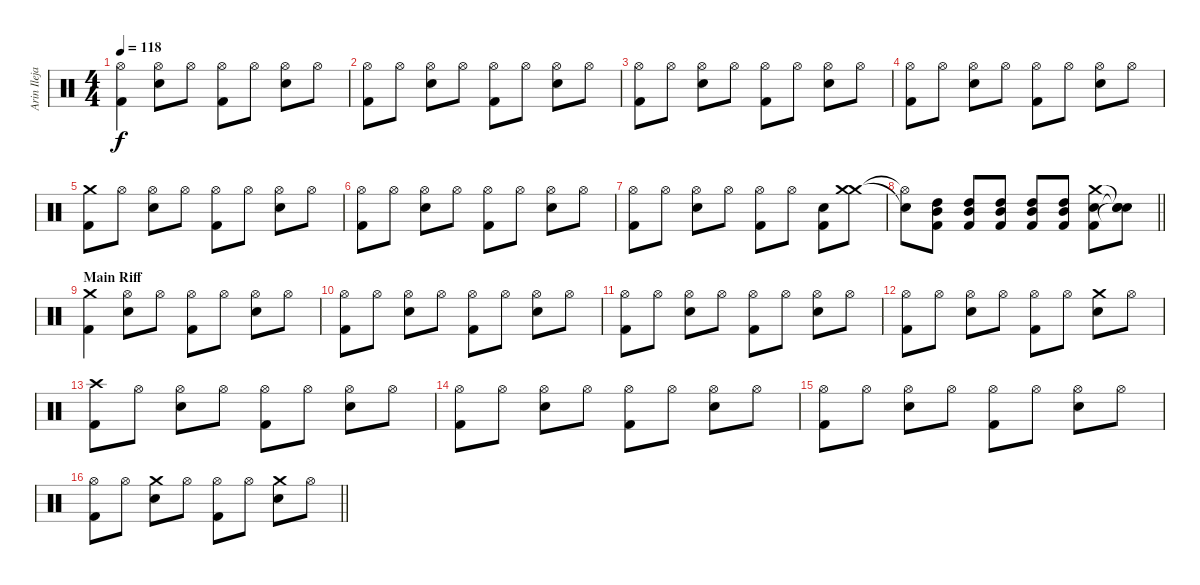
\track ("Arin Ilejay" "Arin Ileja") {instrument percussion bank 164}
\staff {score}
\articulation defaults
\ts (4 4)
\tempo 118
\clef neutral
\ks c
("Hi-Hat (open)" "Kick (hit) 2").4{dy f} ("Hi-Hat (open)" "Electric Snare (hit)").8 "Hi-Hat (open)".8 ("Hi-Hat (open)" "Kick (hit) 2").8 "Hi-Hat (open)".8 ("Hi-Hat (open)" "Electric Snare (hit)").8 "Hi-Hat (open)".8 |
("Hi-Hat (open)" "Kick (hit) 2").8 "Hi-Hat (open)".8 ("Hi-Hat (open)" "Electric Snare (hit)").8 "Hi-Hat (open)".8 ("Hi-Hat (open)" "Kick (hit) 2").8 "Hi-Hat (open)".8 ("Hi-Hat (open)" "Electric Snare (hit)").8 "Hi-Hat (open)".8 |
("Hi-Hat (open)" "Kick (hit) 2").8 "Hi-Hat (open)".8 ("Hi-Hat (open)" "Electric Snare (hit)").8 "Hi-Hat (open)".8 ("Hi-Hat (open)" "Kick (hit) 2").8 "Hi-Hat (open)".8 ("Hi-Hat (open)" "Electric Snare (hit)").8 "Hi-Hat (open)".8 |
("Hi-Hat (open)" "Kick (hit) 2").8 "Hi-Hat (open)".8 ("Hi-Hat (open)" "Electric Snare (hit)").8 "Hi-Hat (open)".8 ("Hi-Hat (open)" "Kick (hit) 2").8 "Hi-Hat (open)".8 ("Hi-Hat (open)" "Electric Snare (hit)").8 "Hi-Hat (open)".8 |
("Crash medium (hit)" "Kick (hit) 2").8 "Hi-Hat (open)".8 ("Hi-Hat (open)" "Electric Snare (hit)").8 "Hi-Hat (open)".8 ("Hi-Hat (open)" "Kick (hit) 2").8 "Hi-Hat (open)".8 ("Hi-Hat (open)" "Electric Snare (hit)").8 "Hi-Hat (open)".8 |
("Hi-Hat (open)" "Kick (hit) 2").8 "Hi-Hat (open)".8 ("Hi-Hat (open)" "Electric Snare (hit)").8 "Hi-Hat (open)".8 ("Hi-Hat (open)" "Kick (hit) 2").8 "Hi-Hat (open)".8 ("Hi-Hat (open)" "Electric Snare (hit)").8 "Hi-Hat (open)".8 |
("Hi-Hat (open)" "Kick (hit) 2").8 "Hi-Hat (open)".8 ("Hi-Hat (open)" "Electric Snare (hit)").8 "Hi-Hat (open)".8 ("Hi-Hat (open)" "Kick (hit) 2").8 "Hi-Hat (open)".8 ("Electric Snare (hit)" "Kick (hit) 2").8 ("Crash medium (hit)" "Crash medium (hit)").8 |
\barLineRight lightlight
("Hi-Hat (open)"{t} "Snare (hit)"{t}).8 ("Mid Tom (hit)" "High Tom (hit)" "Kick (hit) 2").8 ("Mid Tom (hit)" "High Tom (hit)" "Kick (hit) 2").8 ("Mid Tom (hit)" "High Tom (hit)" "Kick (hit) 2").8 ("Mid Tom (hit)" "High Tom (hit)" "Kick (hit) 2").8 ("Mid Tom (hit)" "High Tom (hit)" "Kick (hit) 2").8 ("Crash medium (hit)" "Electric Snare (hit)" "Kick (hit) 2").8 ("Snare (hit)"{t} "Snare (hit)"{t} "Snare (hit)"{t}).8 |
\section ("" "Main Riff")
("Crash medium (hit)" "Kick (hit) 2").4 ("Hi-Hat (open)" "Electric Snare (hit)").8 "Hi-Hat (open)".8 ("Hi-Hat (open)" "Kick (hit) 2").8 "Hi-Hat (open)".8 ("Hi-Hat (open)" "Electric Snare (hit)").8 "Hi-Hat (open)".8 |
("Hi-Hat (open)" "Kick (hit) 2").8 "Hi-Hat (open)".8 ("Hi-Hat (open)" "Electric Snare (hit)").8 "Hi-Hat (open)".8 ("Hi-Hat (open)" "Kick (hit) 2").8 "Hi-Hat (open)".8 ("Hi-Hat (open)" "Electric Snare (hit)").8 "Hi-Hat (open)".8 |
("Hi-Hat (open)" "Kick (hit) 2").8 "Hi-Hat (open)".8 ("Hi-Hat (open)" "Electric Snare (hit)").8 "Hi-Hat (open)".8 ("Hi-Hat (open)" "Kick (hit) 2").8 "Hi-Hat (open)".8 ("Hi-Hat (open)" "Electric Snare (hit)").8 "Hi-Hat (open)".8 |
("Hi-Hat (open)" "Kick (hit) 2").8 "Hi-Hat (open)".8 ("Hi-Hat (open)" "Electric Snare (hit)").8 "Hi-Hat (open)".8 ("Hi-Hat (open)" "Kick (hit) 2").8 "Hi-Hat (open)".8 ("Crash medium (hit)" "Electric Snare (hit)").8 "Hi-Hat (open)".8 |
("Crash high (hit)" "Kick (hit) 2").8 "Hi-Hat (open)".8 ("Hi-Hat (open)" "Electric Snare (hit)").8 "Hi-Hat (open)".8 ("Hi-Hat (open)" "Kick (hit) 2").8 "Hi-Hat (open)".8 ("Hi-Hat (open)" "Electric Snare (hit)").8 "Hi-Hat (open)".8 |
("Hi-Hat (open)" "Kick (hit) 2").8 "Hi-Hat (open)".8 ("Hi-Hat (open)" "Electric Snare (hit)").8 "Hi-Hat (open)".8 ("Hi-Hat (open)" "Kick (hit) 2").8 "Hi-Hat (open)".8 ("Hi-Hat (open)" "Electric Snare (hit)").8 "Hi-Hat (open)".8 |
("Hi-Hat (open)" "Kick (hit) 2").8 "Hi-Hat (open)".8 ("Hi-Hat (open)" "Electric Snare (hit)").8 "Hi-Hat (open)".8 ("Hi-Hat (open)" "Kick (hit) 2").8 "Hi-Hat (open)".8 ("Hi-Hat (open)" "Electric Snare (hit)").8 "Hi-Hat (open)".8 |
\barLineRight lightlight
("Hi-Hat (open)" "Kick (hit) 2").8 "Hi-Hat (open)".8 ("Crash medium (hit)" "Electric Snare (hit)").8 "Hi-Hat (open)".8 ("Hi-Hat (open)" "Kick (hit) 2").8 "Hi-Hat (open)".8 ("Crash medium (hit)" "Electric Snare (hit)").8 "Hi-Hat (open)".8
